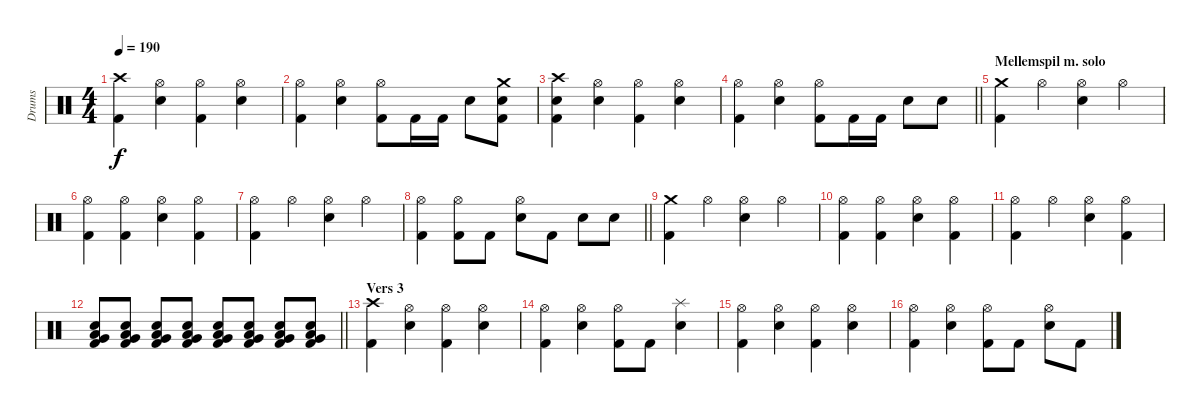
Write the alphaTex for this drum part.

\track ("Drums" "Drums") {instrument percussion}
\staff {score}
\articulation defaults
\ts (4 4)
\tempo 190
\clef neutral
\ks c
("Crash high (hit)" "Kick (hit) 2").4{dy f} ("Hi-Hat (open)" "Snare (hit) 2").4 ("Hi-Hat (open)" "Kick (hit) 2").4 ("Hi-Hat (open)" "Snare (hit) 2").4 |
("Hi-Hat (open)" "Kick (hit) 2").4 ("Hi-Hat (open)" "Snare (hit) 2").4 ("Hi-Hat (open)" "Kick (hit) 2").8 "Kick (hit) 2".16 "Kick (hit) 2".16 "Snare (hit) 2".8 ("Crash medium (hit)" "Snare (hit) 2" "Kick (hit) 2").8 |
("Crash high (hit)" "Snare (hit) 2" "Kick (hit) 2").4 ("Hi-Hat (open)" "Snare (hit) 2").4 ("Hi-Hat (open)" "Kick (hit) 2").4 ("Hi-Hat (open)" "Snare (hit) 2").4 |
\barLineRight lightlight
("Hi-Hat (open)" "Kick (hit) 2").4 ("Hi-Hat (open)" "Snare (hit) 2").4 ("Hi-Hat (open)" "Kick (hit) 2").8 "Kick (hit) 2".16 "Kick (hit) 2".16 "Snare (hit) 2".8 "Snare (hit) 2".8 |
\section ("" "Mellemspil m. solo")
("Crash medium (hit)" "Kick (hit) 2").4 "Hi-Hat (open)".4 ("Hi-Hat (open)" "Snare (hit) 2").4 "Hi-Hat (open)".4 |
("Hi-Hat (open)" "Kick (hit) 2").4 ("Hi-Hat (open)" "Kick (hit) 2").4 ("Hi-Hat (open)" "Snare (hit) 2").4 ("Hi-Hat (open)" "Kick (hit) 2").4 |
("Hi-Hat (open)" "Kick (hit) 2").4 "Hi-Hat (open)".4 ("Hi-Hat (open)" "Snare (hit) 2").4 "Hi-Hat (open)".4 |
\barLineRight lightlight
("Hi-Hat (open)" "Kick (hit) 2").4 ("Hi-Hat (open)" "Kick (hit) 2").8 "Kick (hit) 2".8 ("Hi-Hat (open)" "Snare (hit) 2").8 "Kick (hit) 2".8 "Snare (hit) 2".8 "Snare (hit) 2".8 |
("Crash medium (hit)" "Kick (hit) 2").4 "Hi-Hat (open)".4 ("Hi-Hat (open)" "Snare (hit) 2").4 "Hi-Hat (open)".4 |
("Hi-Hat (open)" "Kick (hit) 2").4 ("Hi-Hat (open)" "Kick (hit) 2").4 ("Hi-Hat (open)" "Snare (hit) 2").4 ("Hi-Hat (open)" "Kick (hit) 2").4 |
("Hi-Hat (open)" "Kick (hit) 2").4 "Hi-Hat (open)".4 ("Hi-Hat (open)" "Snare (hit) 2").4 ("Hi-Hat (open)" "Kick (hit) 2").4 |
\barLineRight lightlight
("Low Tom (hit)" "Very Low Tom (hit)" "Snare (hit) 2" "Kick (hit) 2").8 ("Low Tom (hit)" "Very Low Tom (hit)" "Snare (hit) 2" "Kick (hit) 2").8 ("Low Tom (hit)" "Very Low Tom (hit)" "Snare (hit) 2" "Kick (hit) 2").8 ("Low Tom (hit)" "Very Low Tom (hit)" "Snare (hit) 2" "Kick (hit) 2").8 ("Very Low Tom (hit)" "Low Floor Tom (hit)" "Snare (hit) 2" "Kick (hit) 2").8 ("Very Low Tom (hit)" "Low Floor Tom (hit)" "Snare (hit) 2" "Kick (hit) 2").8 ("Very Low Tom (hit)" "Low Floor Tom (hit)" "Snare (hit) 2" "Kick (hit) 2").8 ("Very Low Tom (hit)" "Low Floor Tom (hit)" "Snare (hit) 2" "Kick (hit) 2").8 |
\section ("" "Vers 3")
("Crash high (hit)" "Kick (hit) 2").4 ("Hi-Hat (open)" "Snare (hit) 2").4 ("Hi-Hat (open)" "Kick (hit) 2").4 ("Hi-Hat (open)" "Snare (hit) 2").4 |
("Hi-Hat (open)" "Kick (hit) 2").4 ("Hi-Hat (open)" "Snare (hit) 2").4 ("Hi-Hat (open)" "Kick (hit) 2").8 "Kick (hit) 2".8 ("Splash (hit)" "Snare (hit) 2").4 |
("Hi-Hat (open)" "Kick (hit) 2").4 ("Hi-Hat (open)" "Snare (hit) 2").4 ("Hi-Hat (open)" "Kick (hit) 2").4 ("Hi-Hat (open)" "Snare (hit) 2").4 |
("Hi-Hat (open)" "Kick (hit) 2").4 ("Hi-Hat (open)" "Snare (hit) 2").4 ("Hi-Hat (open)" "Kick (hit) 2").8 "Kick (hit) 2".8 ("Hi-Hat (open)" "Snare (hit) 2").8 "Kick (hit) 2".8
